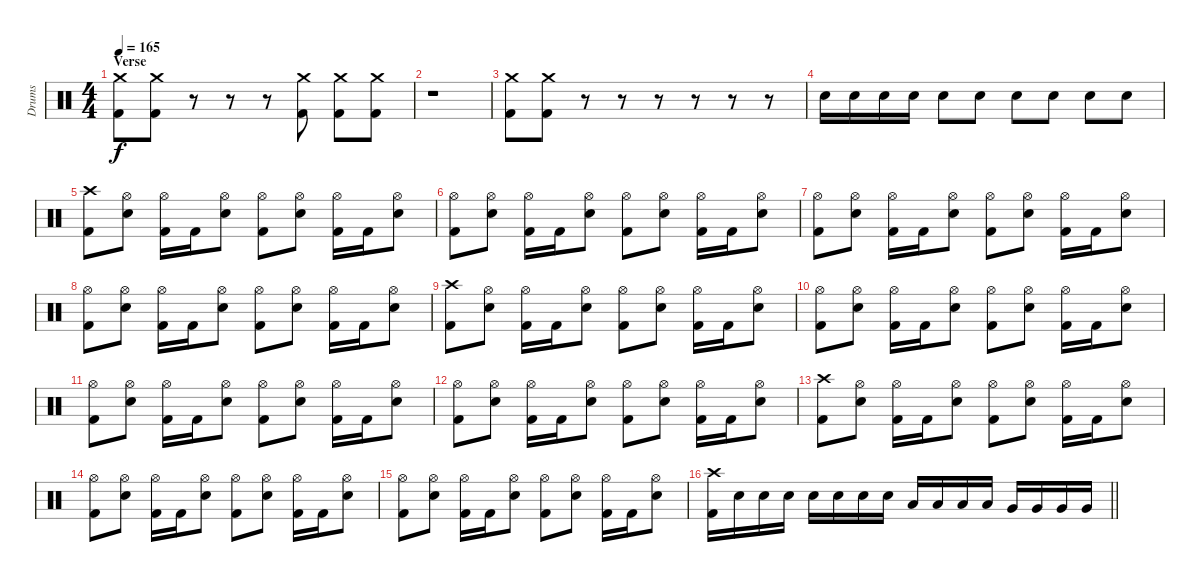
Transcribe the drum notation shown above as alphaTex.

\track ("Drums" "Drums") {instrument percussion}
\staff {score}
\articulation defaults
\ts (4 4)
\section ("" "Verse")
\tempo 165
\clef neutral
\ks c
("Crash medium (hit)" "Kick (hit) 2").8{dy f} ("Crash medium (hit)" "Kick (hit) 2").8 r.8{volume 0} r.8 r.8 ("Crash medium (hit)" "Kick (hit) 2").8{volume 13} ("Crash medium (hit)" "Kick (hit) 2").8 ("Crash medium (hit)" "Kick (hit) 2").8 |
r.1{volume 0} |
("Crash medium (hit)" "Kick (hit) 2").8{volume 13} ("Crash medium (hit)" "Kick (hit) 2").8 r.8{volume 0} r.8 r.8 r.8 r.8 r.8 |
"Electric Snare (hit)".16{volume 13} "Electric Snare (hit)".16 "Electric Snare (hit)".16 "Electric Snare (hit)".16 "Electric Snare (hit)".8 "Electric Snare (hit)".8 "Electric Snare (hit)".8 "Electric Snare (hit)".8 "Electric Snare (hit)".8 "Electric Snare (hit)".8 |
("Crash high (hit)" "Kick (hit) 2").8 ("Hi-Hat (open)" "Electric Snare (hit)").8 ("Hi-Hat (open)" "Kick (hit) 2").16 "Kick (hit) 2".16 ("Hi-Hat (open)" "Electric Snare (hit)").8 ("Hi-Hat (open)" "Kick (hit) 2").8 ("Hi-Hat (open)" "Electric Snare (hit)").8 ("Hi-Hat (open)" "Kick (hit) 2").16 "Kick (hit) 2".16 ("Hi-Hat (open)" "Electric Snare (hit)").8 |
("Hi-Hat (open)" "Kick (hit) 2").8 ("Hi-Hat (open)" "Electric Snare (hit)").8 ("Hi-Hat (open)" "Kick (hit) 2").16 "Kick (hit) 2".16 ("Hi-Hat (open)" "Electric Snare (hit)").8 ("Hi-Hat (open)" "Kick (hit) 2").8 ("Hi-Hat (open)" "Electric Snare (hit)").8 ("Hi-Hat (open)" "Kick (hit) 2").16 "Kick (hit) 2".16 ("Hi-Hat (open)" "Electric Snare (hit)").8 |
("Hi-Hat (open)" "Kick (hit) 2").8 ("Hi-Hat (open)" "Electric Snare (hit)").8 ("Hi-Hat (open)" "Kick (hit) 2").16 "Kick (hit) 2".16 ("Hi-Hat (open)" "Electric Snare (hit)").8 ("Hi-Hat (open)" "Kick (hit) 2").8 ("Hi-Hat (open)" "Electric Snare (hit)").8 ("Hi-Hat (open)" "Kick (hit) 2").16 "Kick (hit) 2".16 ("Hi-Hat (open)" "Electric Snare (hit)").8 |
("Hi-Hat (open)" "Kick (hit) 2").8 ("Hi-Hat (open)" "Electric Snare (hit)").8 ("Hi-Hat (open)" "Kick (hit) 2").16 "Kick (hit) 2".16 ("Hi-Hat (open)" "Electric Snare (hit)").8 ("Hi-Hat (open)" "Kick (hit) 2").8 ("Hi-Hat (open)" "Electric Snare (hit)").8 ("Hi-Hat (open)" "Kick (hit) 2").16 "Kick (hit) 2".16 ("Hi-Hat (open)" "Electric Snare (hit)").8 |
("Crash high (hit)" "Kick (hit) 2").8 ("Hi-Hat (open)" "Electric Snare (hit)").8 ("Hi-Hat (open)" "Kick (hit) 2").16 "Kick (hit) 2".16 ("Hi-Hat (open)" "Electric Snare (hit)").8 ("Hi-Hat (open)" "Kick (hit) 2").8 ("Hi-Hat (open)" "Electric Snare (hit)").8 ("Hi-Hat (open)" "Kick (hit) 2").16 "Kick (hit) 2".16 ("Hi-Hat (open)" "Electric Snare (hit)").8 |
("Hi-Hat (open)" "Kick (hit) 2").8 ("Hi-Hat (open)" "Electric Snare (hit)").8 ("Hi-Hat (open)" "Kick (hit) 2").16 "Kick (hit) 2".16 ("Hi-Hat (open)" "Electric Snare (hit)").8 ("Hi-Hat (open)" "Kick (hit) 2").8 ("Hi-Hat (open)" "Electric Snare (hit)").8 ("Hi-Hat (open)" "Kick (hit) 2").16 "Kick (hit) 2".16 ("Hi-Hat (open)" "Electric Snare (hit)").8 |
("Hi-Hat (open)" "Kick (hit) 2").8 ("Hi-Hat (open)" "Electric Snare (hit)").8 ("Hi-Hat (open)" "Kick (hit) 2").16 "Kick (hit) 2".16 ("Hi-Hat (open)" "Electric Snare (hit)").8 ("Hi-Hat (open)" "Kick (hit) 2").8 ("Hi-Hat (open)" "Electric Snare (hit)").8 ("Hi-Hat (open)" "Kick (hit) 2").16 "Kick (hit) 2".16 ("Hi-Hat (open)" "Electric Snare (hit)").8 |
("Hi-Hat (open)" "Kick (hit) 2").8 ("Hi-Hat (open)" "Electric Snare (hit)").8 ("Hi-Hat (open)" "Kick (hit) 2").16 "Kick (hit) 2".16 ("Hi-Hat (open)" "Electric Snare (hit)").8 ("Hi-Hat (open)" "Kick (hit) 2").8 ("Hi-Hat (open)" "Electric Snare (hit)").8 ("Hi-Hat (open)" "Kick (hit) 2").16 "Kick (hit) 2".16 ("Hi-Hat (open)" "Electric Snare (hit)").8 |
("Crash high (hit)" "Kick (hit) 2").8 ("Hi-Hat (open)" "Electric Snare (hit)").8 ("Hi-Hat (open)" "Kick (hit) 2").16 "Kick (hit) 2".16 ("Hi-Hat (open)" "Electric Snare (hit)").8 ("Hi-Hat (open)" "Kick (hit) 2").8 ("Hi-Hat (open)" "Electric Snare (hit)").8 ("Hi-Hat (open)" "Kick (hit) 2").16 "Kick (hit) 2".16 ("Hi-Hat (open)" "Electric Snare (hit)").8 |
("Hi-Hat (open)" "Kick (hit) 2").8 ("Hi-Hat (open)" "Electric Snare (hit)").8 ("Hi-Hat (open)" "Kick (hit) 2").16 "Kick (hit) 2".16 ("Hi-Hat (open)" "Electric Snare (hit)").8 ("Hi-Hat (open)" "Kick (hit) 2").8 ("Hi-Hat (open)" "Electric Snare (hit)").8 ("Hi-Hat (open)" "Kick (hit) 2").16 "Kick (hit) 2".16 ("Hi-Hat (open)" "Electric Snare (hit)").8 |
("Hi-Hat (open)" "Kick (hit) 2").8 ("Hi-Hat (open)" "Electric Snare (hit)").8 ("Hi-Hat (open)" "Kick (hit) 2").16 "Kick (hit) 2".16 ("Hi-Hat (open)" "Electric Snare (hit)").8 ("Hi-Hat (open)" "Kick (hit) 2").8 ("Hi-Hat (open)" "Electric Snare (hit)").8 ("Hi-Hat (open)" "Kick (hit) 2").16 "Kick (hit) 2".16 ("Hi-Hat (open)" "Electric Snare (hit)").8 |
\barLineRight lightlight
("Crash high (hit)" "Kick (hit) 2").16 "Electric Snare (hit)".16 "Electric Snare (hit)".16 "Electric Snare (hit)".16 "Electric Snare (hit)".16 "Electric Snare (hit)".16 "Electric Snare (hit)".16 "Electric Snare (hit)".16 "Low Tom (hit)".16 "Low Tom (hit)".16 "Low Tom (hit)".16 "Low Tom (hit)".16 "Very Low Tom (hit)".16 "Very Low Tom (hit)".16 "Very Low Tom (hit)".16 "Very Low Tom (hit)".16
